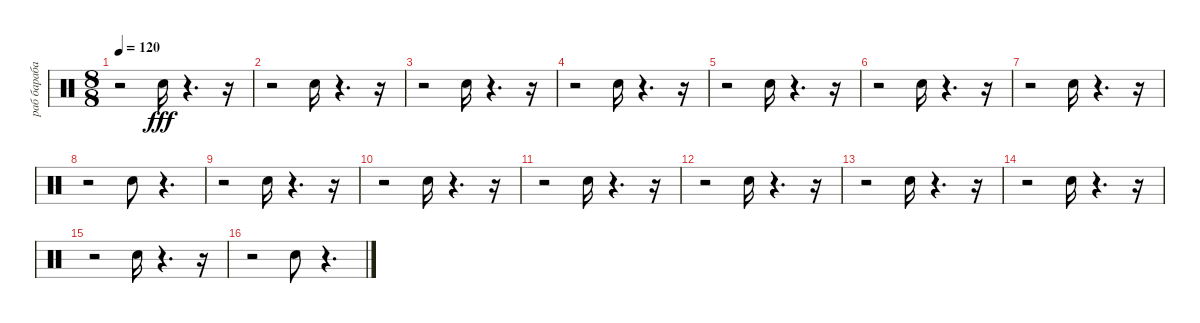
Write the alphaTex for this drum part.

\track ("раб барабан" "раб бараба") {instrument percussion}
\staff {score}
\articulation defaults
\ts (8 8)
\tempo 120
\clef neutral
\ks c
r.2{dy fff} "Snare (hit) 2".16 r.4{d} r.16 |
r.2 "Snare (hit) 2".16 r.4{d} r.16 |
r.2 "Snare (hit) 2".16 r.4{d} r.16 |
r.2 "Snare (hit) 2".16 r.4{d} r.16 |
r.2 "Snare (hit) 2".16 r.4{d} r.16 |
r.2 "Snare (hit) 2".16 r.4{d} r.16 |
r.2 "Snare (hit) 2".16 r.4{d} r.16 |
r.2 "Snare (hit) 2".8 r.4{d} |
r.2 "Snare (hit) 2".16 r.4{d} r.16 |
r.2 "Snare (hit) 2".16 r.4{d} r.16 |
r.2 "Snare (hit) 2".16 r.4{d} r.16 |
r.2 "Snare (hit) 2".16 r.4{d} r.16 |
r.2 "Snare (hit) 2".16 r.4{d} r.16 |
r.2 "Snare (hit) 2".16 r.4{d} r.16 |
r.2 "Snare (hit) 2".16 r.4{d} r.16 |
r.2 "Snare (hit) 2".8 r.4{d}
